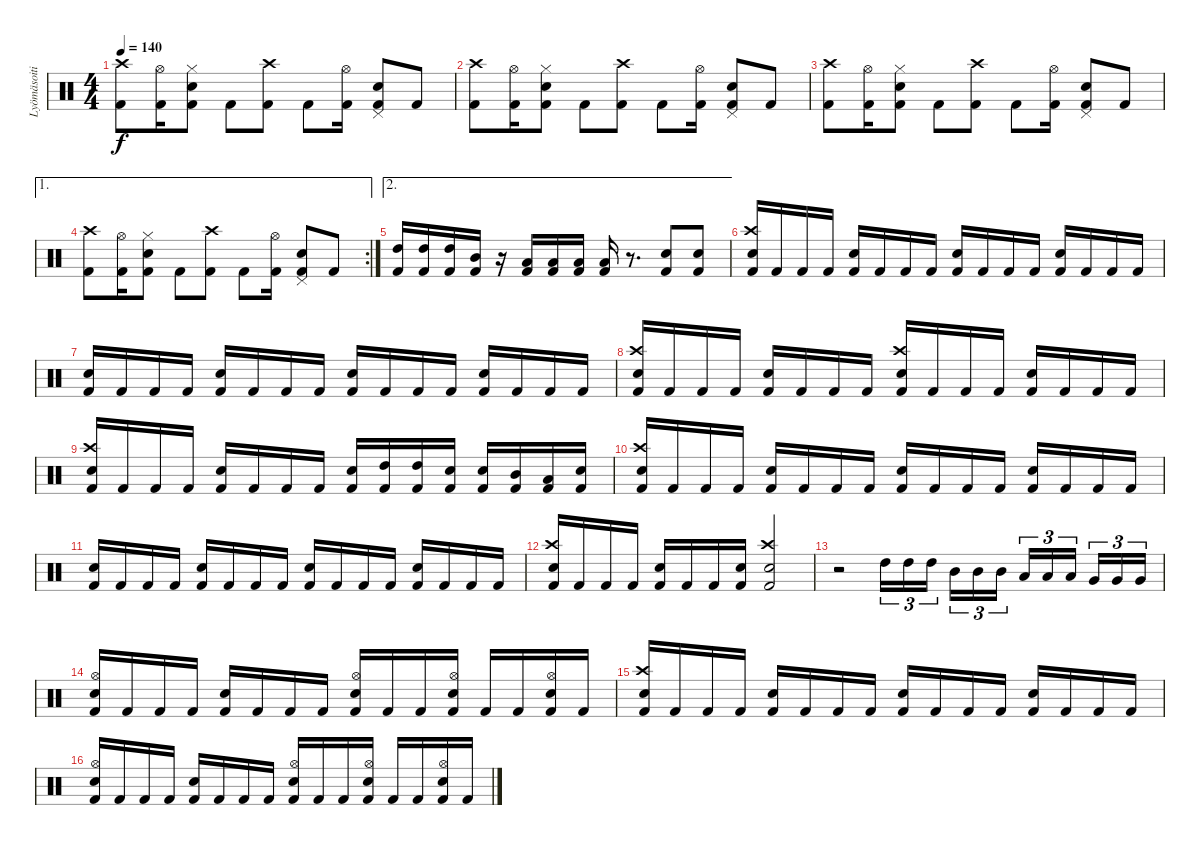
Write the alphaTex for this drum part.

\track ("Lyömäsoitin" "Lyömäsoiti") {instrument percussion}
\staff {score}
\articulation defaults
\ts (4 4)
\tempo 140
\clef neutral
\ks c
("Kick (hit) 2" "Crash high (hit)").8{dy f} ("Kick (hit) 2" "Hi-Hat (open)").16 ("Kick (hit) 2" "Electric Snare (hit)" "Hi-Hat (closed)").8 "Kick (hit) 2".8 ("Kick (hit) 2" "Crash high (hit)").8 "Kick (hit) 2".8 ("Kick (hit) 2" "Hi-Hat (open)").16 ("Kick (hit) 2" "Electric Snare (hit)" "Pedal Hi-Hat (hit)").8 "Kick (hit) 2".8 |
("Kick (hit) 2" "Crash high (hit)").8 ("Kick (hit) 2" "Hi-Hat (open)").16 ("Kick (hit) 2" "Electric Snare (hit)" "Hi-Hat (closed)").8 "Kick (hit) 2".8 ("Kick (hit) 2" "Crash high (hit)").8 "Kick (hit) 2".8 ("Kick (hit) 2" "Hi-Hat (open)").16 ("Kick (hit) 2" "Electric Snare (hit)" "Pedal Hi-Hat (hit)").8 "Kick (hit) 2".8 |
("Kick (hit) 2" "Crash high (hit)").8 ("Kick (hit) 2" "Hi-Hat (open)").16 ("Kick (hit) 2" "Electric Snare (hit)" "Hi-Hat (closed)").8 "Kick (hit) 2".8 ("Kick (hit) 2" "Crash high (hit)").8 "Kick (hit) 2".8 ("Kick (hit) 2" "Hi-Hat (open)").16 ("Kick (hit) 2" "Electric Snare (hit)" "Pedal Hi-Hat (hit)").8 "Kick (hit) 2".8 |
\ae 1
\rc 2
("Kick (hit) 2" "Crash high (hit)").8 ("Kick (hit) 2" "Hi-Hat (open)").16 ("Kick (hit) 2" "Electric Snare (hit)" "Hi-Hat (closed)").8 "Kick (hit) 2".8 ("Kick (hit) 2" "Crash high (hit)").8 "Kick (hit) 2".8 ("Kick (hit) 2" "Hi-Hat (open)").16 ("Kick (hit) 2" "Electric Snare (hit)" "Pedal Hi-Hat (hit)").8 "Kick (hit) 2".8 |
\ae 2
("Kick (hit) 2" "High Tom (hit)").16 ("Kick (hit) 2" "High Tom (hit)").16 ("Kick (hit) 2" "High Tom (hit)").16 ("Kick (hit) 2" "Mid Tom (hit)").16 r.16 ("Kick (hit) 2" "Low Tom (hit)").16 ("Kick (hit) 2" "Low Tom (hit)").16 ("Kick (hit) 2" "Low Tom (hit)").16 ("Kick (hit) 2" "Low Tom (hit)").16 r.8{d} ("Electric Snare (hit)" "Kick (hit) 2").8 ("Electric Snare (hit)" "Kick (hit) 2").8 |
("Crash high (hit)" "Electric Snare (hit)" "Kick (hit) 2").16 "Kick (hit) 2".16 "Kick (hit) 2".16 "Kick (hit) 2".16 ("Electric Snare (hit)" "Kick (hit) 2").16 "Kick (hit) 2".16 "Kick (hit) 2".16 "Kick (hit) 2".16 ("Electric Snare (hit)" "Kick (hit) 2").16 "Kick (hit) 2".16 "Kick (hit) 2".16 "Kick (hit) 2".16 ("Electric Snare (hit)" "Kick (hit) 2").16 "Kick (hit) 2".16 "Kick (hit) 2".16 "Kick (hit) 2".16 |
("Electric Snare (hit)" "Kick (hit) 2").16 "Kick (hit) 2".16 "Kick (hit) 2".16 "Kick (hit) 2".16 ("Electric Snare (hit)" "Kick (hit) 2").16 "Kick (hit) 2".16 "Kick (hit) 2".16 "Kick (hit) 2".16 ("Electric Snare (hit)" "Kick (hit) 2").16 "Kick (hit) 2".16 "Kick (hit) 2".16 "Kick (hit) 2".16 ("Electric Snare (hit)" "Kick (hit) 2").16 "Kick (hit) 2".16 "Kick (hit) 2".16 "Kick (hit) 2".16 |
("Crash high (hit)" "Electric Snare (hit)" "Kick (hit) 2").16 "Kick (hit) 2".16 "Kick (hit) 2".16 "Kick (hit) 2".16 ("Electric Snare (hit)" "Kick (hit) 2").16 "Kick (hit) 2".16 "Kick (hit) 2".16 "Kick (hit) 2".16 ("Crash high (hit)" "Electric Snare (hit)" "Kick (hit) 2").16 "Kick (hit) 2".16 "Kick (hit) 2".16 "Kick (hit) 2".16 ("Electric Snare (hit)" "Kick (hit) 2").16 "Kick (hit) 2".16 "Kick (hit) 2".16 "Kick (hit) 2".16 |
("Crash high (hit)" "Electric Snare (hit)" "Kick (hit) 2").16 "Kick (hit) 2".16 "Kick (hit) 2".16 "Kick (hit) 2".16 ("Electric Snare (hit)" "Kick (hit) 2").16 "Kick (hit) 2".16 "Kick (hit) 2".16 "Kick (hit) 2".16 ("Electric Snare (hit)" "Kick (hit) 2").16 ("High Tom (hit)" "Kick (hit) 2").16 ("High Tom (hit)" "Kick (hit) 2").16 ("Electric Snare (hit)" "Kick (hit) 2").16 ("Electric Snare (hit)" "Kick (hit) 2").16 ("Mid Tom (hit)" "Kick (hit) 2").16 ("Low Tom (hit)" "Kick (hit) 2").16 ("Electric Snare (hit)" "Kick (hit) 2").16 |
("Crash high (hit)" "Electric Snare (hit)" "Kick (hit) 2").16 "Kick (hit) 2".16 "Kick (hit) 2".16 "Kick (hit) 2".16 ("Electric Snare (hit)" "Kick (hit) 2").16 "Kick (hit) 2".16 "Kick (hit) 2".16 "Kick (hit) 2".16 ("Electric Snare (hit)" "Kick (hit) 2").16 "Kick (hit) 2".16 "Kick (hit) 2".16 "Kick (hit) 2".16 ("Electric Snare (hit)" "Kick (hit) 2").16 "Kick (hit) 2".16 "Kick (hit) 2".16 "Kick (hit) 2".16 |
("Electric Snare (hit)" "Kick (hit) 2").16 "Kick (hit) 2".16 "Kick (hit) 2".16 "Kick (hit) 2".16 ("Electric Snare (hit)" "Kick (hit) 2").16 "Kick (hit) 2".16 "Kick (hit) 2".16 "Kick (hit) 2".16 ("Electric Snare (hit)" "Kick (hit) 2").16 "Kick (hit) 2".16 "Kick (hit) 2".16 "Kick (hit) 2".16 ("Electric Snare (hit)" "Kick (hit) 2").16 "Kick (hit) 2".16 "Kick (hit) 2".16 "Kick (hit) 2".16 |
("Crash high (hit)" "Electric Snare (hit)" "Kick (hit) 2").16 "Kick (hit) 2".16 "Kick (hit) 2".16 "Kick (hit) 2".16 ("Electric Snare (hit)" "Kick (hit) 2").16 "Kick (hit) 2".16 "Kick (hit) 2".16 ("Electric Snare (hit)" "Kick (hit) 2").16 ("Crash high (hit)" "Electric Snare (hit)" "Kick (hit) 2").2 |
r.2 "High Tom (hit)".16{tu (3 2)} "High Tom (hit)".16{tu (3 2)} "High Tom (hit)".16{tu (3 2)} "Mid Tom (hit)".16{tu (3 2)} "Mid Tom (hit)".16{tu (3 2)} "Mid Tom (hit)".16{tu (3 2)} "Low Tom (hit)".16{tu (3 2)} "Low Tom (hit)".16{tu (3 2)} "Low Tom (hit)".16{tu (3 2)} "Very Low Tom (hit)".16{tu (3 2)} "Very Low Tom (hit)".16{tu (3 2)} "Very Low Tom (hit)".16{tu (3 2)} |
("Hi-Hat (open)" "Electric Snare (hit)" "Kick (hit) 2").16 "Kick (hit) 2".16 "Kick (hit) 2".16 "Kick (hit) 2".16 ("Electric Snare (hit)" "Kick (hit) 2").16 "Kick (hit) 2".16 "Kick (hit) 2".16 "Kick (hit) 2".16 ("Hi-Hat (open)" "Electric Snare (hit)" "Kick (hit) 2").16 "Kick (hit) 2".16 "Kick (hit) 2".16 ("Hi-Hat (open)" "Electric Snare (hit)" "Kick (hit) 2").16 "Kick (hit) 2".16 "Kick (hit) 2".16 ("Hi-Hat (open)" "Electric Snare (hit)" "Kick (hit) 2").16 "Kick (hit) 2".16 |
("Crash high (hit)" "Electric Snare (hit)" "Kick (hit) 2").16 "Kick (hit) 2".16 "Kick (hit) 2".16 "Kick (hit) 2".16 ("Electric Snare (hit)" "Kick (hit) 2").16 "Kick (hit) 2".16 "Kick (hit) 2".16 "Kick (hit) 2".16 ("Electric Snare (hit)" "Kick (hit) 2").16 "Kick (hit) 2".16 "Kick (hit) 2".16 "Kick (hit) 2".16 ("Electric Snare (hit)" "Kick (hit) 2").16 "Kick (hit) 2".16 "Kick (hit) 2".16 "Kick (hit) 2".16 |
("Hi-Hat (open)" "Electric Snare (hit)" "Kick (hit) 2").16 "Kick (hit) 2".16 "Kick (hit) 2".16 "Kick (hit) 2".16 ("Electric Snare (hit)" "Kick (hit) 2").16 "Kick (hit) 2".16 "Kick (hit) 2".16 "Kick (hit) 2".16 ("Hi-Hat (open)" "Electric Snare (hit)" "Kick (hit) 2").16 "Kick (hit) 2".16 "Kick (hit) 2".16 ("Hi-Hat (open)" "Electric Snare (hit)" "Kick (hit) 2").16 "Kick (hit) 2".16 "Kick (hit) 2".16 ("Hi-Hat (open)" "Electric Snare (hit)" "Kick (hit) 2").16 "Kick (hit) 2".16
